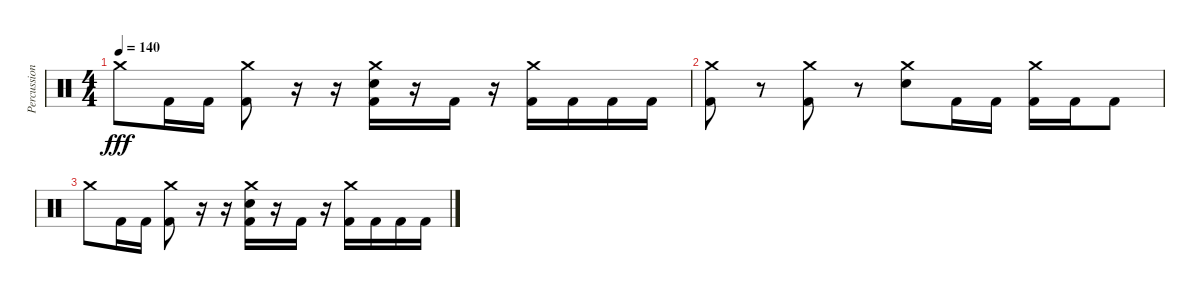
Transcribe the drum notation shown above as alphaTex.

\track ("Percussion" "Percussion") {instrument percussion}
\staff {score}
\articulation defaults
\ts (4 4)
\tempo 140
\clef neutral
\ks c "Crash medium (hit)".8{dy fff} "Kick (hit) 2".16 "Kick (hit) 2".16
("Crash medium (hit)" "Kick (hit) 2").8 r.16 r.16 ("Crash medium (hit)" "Electric Snare (hit)" "Kick (hit) 2").16 r.16 "Kick (hit) 2".16 r.16 ("Crash medium (hit)" "Kick (hit) 2").16 "Kick (hit) 2".16 "Kick (hit) 2".16 "Kick (hit) 2".16 |
("Crash medium (hit)" "Kick (hit) 2").8 r.8 ("Crash medium (hit)" "Kick (hit) 2").8 r.8 ("Crash medium (hit)" "Electric Snare (hit)").8 "Kick (hit) 2".16 "Kick (hit) 2".16 ("Crash medium (hit)" "Kick (hit) 2").16 "Kick (hit) 2".16 "Kick (hit) 2".8 |
"Crash medium (hit)".8 "Kick (hit) 2".16 "Kick (hit) 2".16 ("Crash medium (hit)" "Kick (hit) 2").8 r.16 r.16 ("Crash medium (hit)" "Electric Snare (hit)" "Kick (hit) 2").16 r.16 "Kick (hit) 2".16 r.16 ("Crash medium (hit)" "Kick (hit) 2").16 "Kick (hit) 2".16 "Kick (hit) 2".16 "Kick (hit) 2".16
